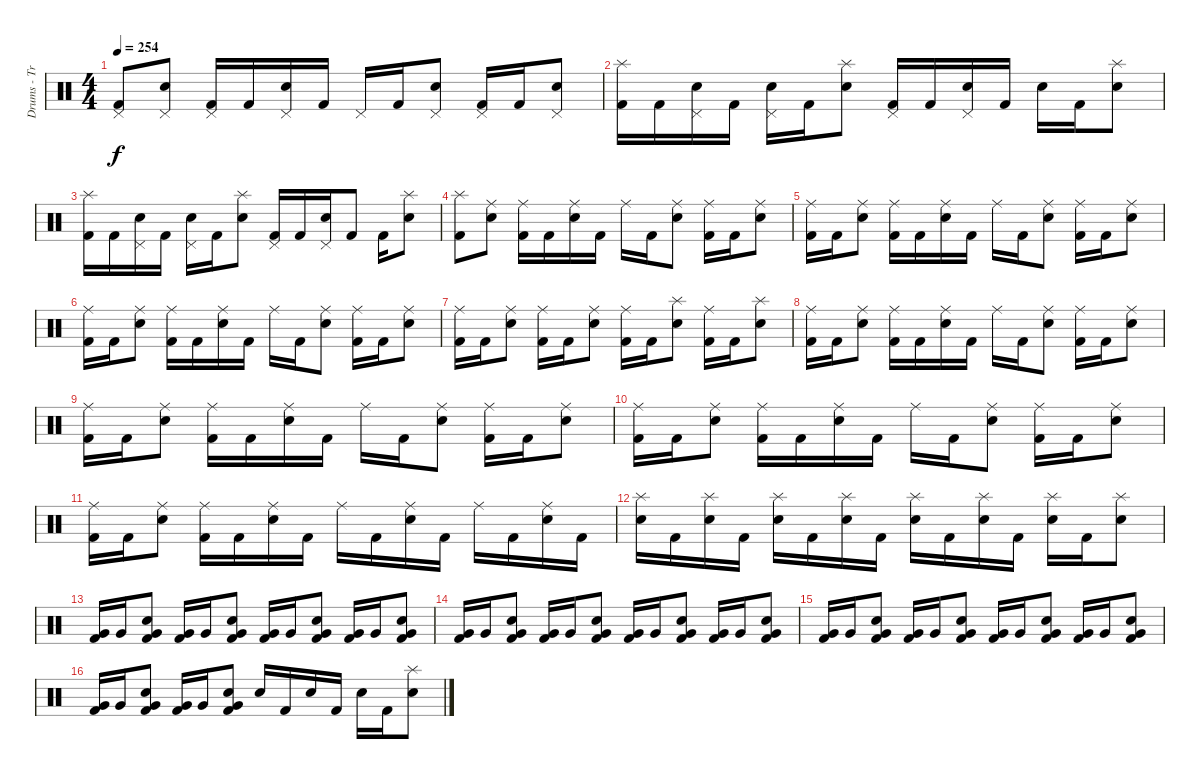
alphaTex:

\track ("Drums - Travis Barker" "Drums - Tr") {instrument percussion}
\staff {score}
\articulation defaults
\ts (4 4)
\tempo 254
\clef neutral
\ks c
("Pedal Hi-Hat (hit)" "Kick (hit) 2").8{dy f} ("Pedal Hi-Hat (hit)" "Electric Snare (hit)").8 ("Pedal Hi-Hat (hit)" "Kick (hit) 2").16 "Kick (hit) 2".16 ("Pedal Hi-Hat (hit)" "Electric Snare (hit)").16 "Kick (hit) 2".16 "Pedal Hi-Hat (hit)".16 "Kick (hit) 2".16 ("Pedal Hi-Hat (hit)" "Electric Snare (hit)").8 ("Pedal Hi-Hat (hit)" "Kick (hit) 2").16 "Kick (hit) 2".16 ("Pedal Hi-Hat (hit)" "Electric Snare (hit)").8 |
("Splash (hit)" "Kick (hit) 2").16 "Kick (hit) 2".16 ("Pedal Hi-Hat (hit)" "Electric Snare (hit)").16 "Kick (hit) 2".16 ("Pedal Hi-Hat (hit)" "Electric Snare (hit)").16 "Kick (hit) 2".16 ("Splash (hit)" "Electric Snare (hit)").8 ("Pedal Hi-Hat (hit)" "Kick (hit) 2").16 "Kick (hit) 2".16 ("Pedal Hi-Hat (hit)" "Electric Snare (hit)").16 "Kick (hit) 2".16 "Electric Snare (hit)".16 "Kick (hit) 2".16 ("Splash (hit)" "Electric Snare (hit)").8 |
("Splash (hit)" "Kick (hit) 2").16 "Kick (hit) 2".16 ("Pedal Hi-Hat (hit)" "Electric Snare (hit)").16 "Kick (hit) 2".16 ("Pedal Hi-Hat (hit)" "Electric Snare (hit)").16 "Kick (hit) 2".16 ("Splash (hit)" "Electric Snare (hit)").8 ("Pedal Hi-Hat (hit)" "Kick (hit) 2").16 "Kick (hit) 2".16 ("Pedal Hi-Hat (hit)" "Electric Snare (hit)").16 "Kick (hit) 2".8 "Kick (hit) 2".16 ("Splash (hit)" "Electric Snare (hit)").8 |
("Splash (hit)" "Kick (hit) 2").8 ("Ride (middle)" "Electric Snare (hit)").8 ("Ride (middle)" "Kick (hit) 2").16 "Kick (hit) 2".16 ("Ride (middle)" "Electric Snare (hit)").16 "Kick (hit) 2".16 "Ride (middle)".16 "Kick (hit) 2".16 ("Ride (middle)" "Electric Snare (hit)").8 ("Ride (middle)" "Kick (hit) 2").16 "Kick (hit) 2".16 ("Ride (middle)" "Electric Snare (hit)").8 |
("Ride (middle)" "Kick (hit) 2").16 "Kick (hit) 2".16 ("Ride (middle)" "Electric Snare (hit)").8 ("Ride (middle)" "Kick (hit) 2").16 "Kick (hit) 2".16 ("Ride (middle)" "Electric Snare (hit)").16 "Kick (hit) 2".16 "Ride (middle)".16 "Kick (hit) 2".16 ("Ride (middle)" "Electric Snare (hit)").8 ("Ride (middle)" "Kick (hit) 2").16 "Kick (hit) 2".16 ("Ride (middle)" "Electric Snare (hit)").8 |
("Ride (middle)" "Kick (hit) 2").16 "Kick (hit) 2".16 ("Ride (middle)" "Electric Snare (hit)").8 ("Ride (middle)" "Kick (hit) 2").16 "Kick (hit) 2".16 ("Ride (middle)" "Electric Snare (hit)").16 "Kick (hit) 2".16 "Ride (middle)".16 "Kick (hit) 2".16 ("Ride (middle)" "Electric Snare (hit)").8 ("Ride (middle)" "Kick (hit) 2").16 "Kick (hit) 2".16 ("Ride (middle)" "Electric Snare (hit)").8 |
("Ride (middle)" "Kick (hit) 2").16 "Kick (hit) 2".16 ("Ride (middle)" "Electric Snare (hit)").8 ("Ride (middle)" "Kick (hit) 2").16 "Kick (hit) 2".16 ("Ride (middle)" "Electric Snare (hit)").8 ("Ride (middle)" "Kick (hit) 2").16 "Kick (hit) 2".16 ("Splash (hit)" "Electric Snare (hit)").8 ("Ride (middle)" "Kick (hit) 2").16 "Kick (hit) 2".16 ("Splash (hit)" "Electric Snare (hit)").8 |
("Ride (middle)" "Kick (hit) 2").16 "Kick (hit) 2".16 ("Ride (middle)" "Electric Snare (hit)").8 ("Ride (middle)" "Kick (hit) 2").16 "Kick (hit) 2".16 ("Ride (middle)" "Electric Snare (hit)").16 "Kick (hit) 2".16 "Ride (middle)".16 "Kick (hit) 2".16 ("Ride (middle)" "Electric Snare (hit)").8 ("Ride (middle)" "Kick (hit) 2").16 "Kick (hit) 2".16 ("Ride (middle)" "Electric Snare (hit)").8 |
("Ride (middle)" "Kick (hit) 2").16 "Kick (hit) 2".16 ("Ride (middle)" "Electric Snare (hit)").8 ("Ride (middle)" "Kick (hit) 2").16 "Kick (hit) 2".16 ("Ride (middle)" "Electric Snare (hit)").16 "Kick (hit) 2".16 "Ride (middle)".16 "Kick (hit) 2".16 ("Ride (middle)" "Electric Snare (hit)").8 ("Ride (middle)" "Kick (hit) 2").16 "Kick (hit) 2".16 ("Ride (middle)" "Electric Snare (hit)").8 |
("Ride (middle)" "Kick (hit) 2").16 "Kick (hit) 2".16 ("Ride (middle)" "Electric Snare (hit)").8 ("Ride (middle)" "Kick (hit) 2").16 "Kick (hit) 2".16 ("Ride (middle)" "Electric Snare (hit)").16 "Kick (hit) 2".16 "Ride (middle)".16 "Kick (hit) 2".16 ("Ride (middle)" "Electric Snare (hit)").8 ("Ride (middle)" "Kick (hit) 2").16 "Kick (hit) 2".16 ("Ride (middle)" "Electric Snare (hit)").8 |
("Ride (middle)" "Kick (hit) 2").16 "Kick (hit) 2".16 ("Ride (middle)" "Electric Snare (hit)").8 ("Ride (middle)" "Kick (hit) 2").16 "Kick (hit) 2".16 ("Ride (middle)" "Electric Snare (hit)").16 "Kick (hit) 2".16 "Ride (middle)".16 "Kick (hit) 2".16 ("Ride (middle)" "Electric Snare (hit)").16 "Kick (hit) 2".16 "Ride (middle)".16 "Kick (hit) 2".16 ("Ride (middle)" "Electric Snare (hit)").16 "Kick (hit) 2".16 |
("Splash (hit)" "Electric Snare (hit)").16 "Kick (hit) 2".16 ("Splash (hit)" "Electric Snare (hit)").16 "Kick (hit) 2".16 ("Splash (hit)" "Electric Snare (hit)").16 "Kick (hit) 2".16 ("Splash (hit)" "Electric Snare (hit)").16 "Kick (hit) 2".16 ("Splash (hit)" "Electric Snare (hit)").16 "Kick (hit) 2".16 ("Splash (hit)" "Electric Snare (hit)").16 "Kick (hit) 2".16 ("Splash (hit)" "Electric Snare (hit)").16 "Kick (hit) 2".16 ("Splash (hit)" "Electric Snare (hit)").8 |
("Very Low Tom (hit)" "Kick (hit) 2").16 "Very Low Tom (hit)".16 ("Very Low Tom (hit)" "Electric Snare (hit)" "Kick (hit) 2").8 ("Very Low Tom (hit)" "Kick (hit) 2").16 "Very Low Tom (hit)".16 ("Very Low Tom (hit)" "Electric Snare (hit)" "Kick (hit) 2").8 ("Very Low Tom (hit)" "Kick (hit) 2").16 "Very Low Tom (hit)".16 ("Very Low Tom (hit)" "Electric Snare (hit)" "Kick (hit) 2").8 ("Very Low Tom (hit)" "Kick (hit) 2").16 "Very Low Tom (hit)".16 ("Very Low Tom (hit)" "Electric Snare (hit)" "Kick (hit) 2").8 |
("Very Low Tom (hit)" "Kick (hit) 2").16 "Very Low Tom (hit)".16 ("Very Low Tom (hit)" "Electric Snare (hit)" "Kick (hit) 2").8 ("Very Low Tom (hit)" "Kick (hit) 2").16 "Very Low Tom (hit)".16 ("Very Low Tom (hit)" "Electric Snare (hit)" "Kick (hit) 2").8 ("Very Low Tom (hit)" "Kick (hit) 2").16 "Very Low Tom (hit)".16 ("Very Low Tom (hit)" "Electric Snare (hit)" "Kick (hit) 2").8 ("Very Low Tom (hit)" "Kick (hit) 2").16 "Very Low Tom (hit)".16 ("Very Low Tom (hit)" "Electric Snare (hit)" "Kick (hit) 2").8 |
("Very Low Tom (hit)" "Kick (hit) 2").16 "Very Low Tom (hit)".16 ("Very Low Tom (hit)" "Electric Snare (hit)" "Kick (hit) 2").8 ("Very Low Tom (hit)" "Kick (hit) 2").16 "Very Low Tom (hit)".16 ("Very Low Tom (hit)" "Electric Snare (hit)" "Kick (hit) 2").8 ("Very Low Tom (hit)" "Kick (hit) 2").16 "Very Low Tom (hit)".16 ("Very Low Tom (hit)" "Electric Snare (hit)" "Kick (hit) 2").8 ("Very Low Tom (hit)" "Kick (hit) 2").16 "Very Low Tom (hit)".16 ("Very Low Tom (hit)" "Electric Snare (hit)" "Kick (hit) 2").8 |
("Very Low Tom (hit)" "Kick (hit) 2").16 "Very Low Tom (hit)".16 ("Very Low Tom (hit)" "Electric Snare (hit)" "Kick (hit) 2").8 ("Very Low Tom (hit)" "Kick (hit) 2").16 "Very Low Tom (hit)".16 ("Very Low Tom (hit)" "Electric Snare (hit)" "Kick (hit) 2").8 "Electric Snare (hit)".16 "Kick (hit) 2".16 "Electric Snare (hit)".16 "Kick (hit) 2".16 "Electric Snare (hit)".16 "Kick (hit) 2".16 ("Splash (hit)" "Electric Snare (hit)").8
